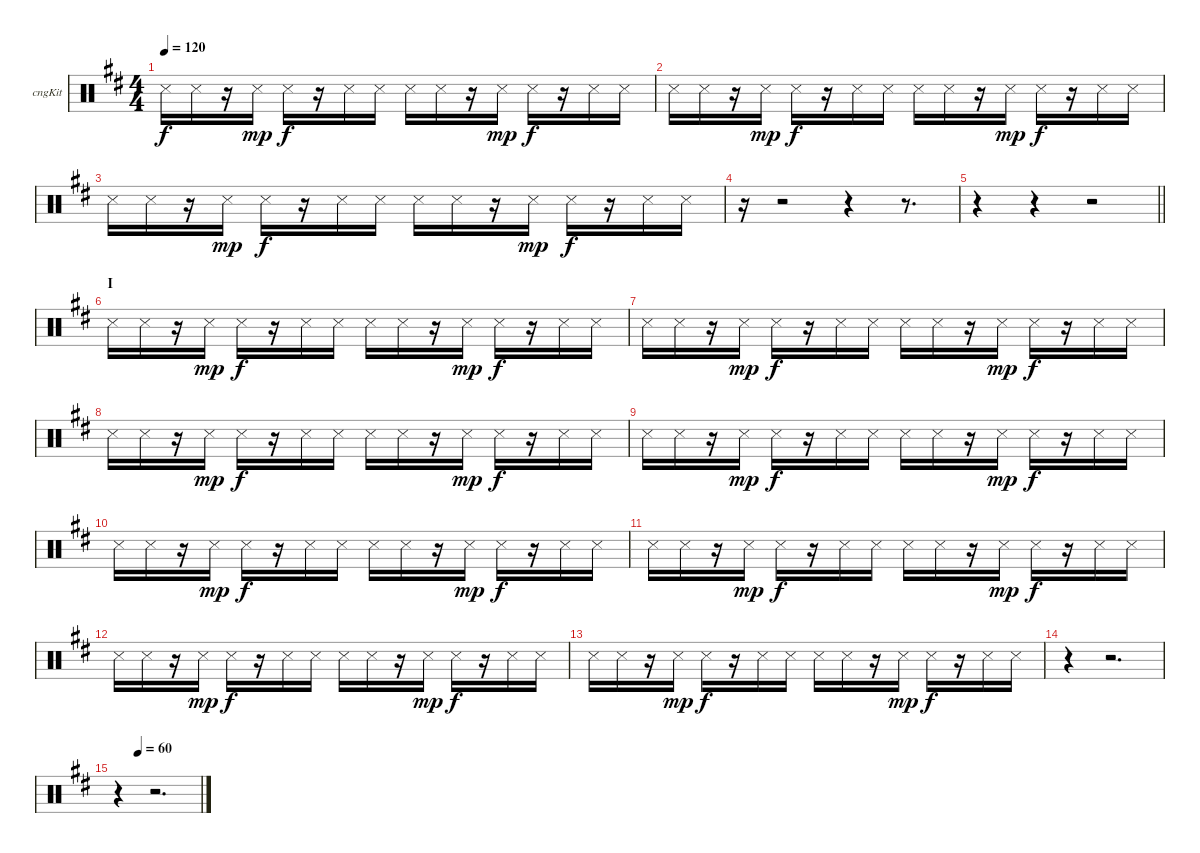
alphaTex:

\bracketExtendMode groupsimilarinstruments
\firstSystemTrackNameOrientation horizontal
\otherSystemsTrackNameOrientation horizontal
\track ("Congas" "cngKit") {instrument percussion}
\staff {score}
\articulation defaults
\ts (4 4)
\tempo 120
\clef neutral
\ks d "Snare (side stick) 3".16{dy f} "Snare (side stick) 3".16
r.16 "Snare (side stick) 3".16{dy mp} "Snare (side stick) 3".16{dy f} r.16 "Snare (side stick) 3".16 "Snare (side stick) 3".16 "Snare (side stick) 3".16 "Snare (side stick) 3".16 r.16 "Snare (side stick) 3".16{dy mp} "Snare (side stick) 3".16{dy f} r.16 "Snare (side stick) 3".16 "Snare (side stick) 3".16 |
"Snare (side stick) 3".16 "Snare (side stick) 3".16 r.16 "Snare (side stick) 3".16{dy mp} "Snare (side stick) 3".16{dy f} r.16 "Snare (side stick) 3".16 "Snare (side stick) 3".16 "Snare (side stick) 3".16 "Snare (side stick) 3".16 r.16 "Snare (side stick) 3".16{dy mp} "Snare (side stick) 3".16{dy f} r.16 "Snare (side stick) 3".16 "Snare (side stick) 3".16 |
"Snare (side stick) 3".16 "Snare (side stick) 3".16 r.16 "Snare (side stick) 3".16{dy mp} "Snare (side stick) 3".16{dy f} r.16 "Snare (side stick) 3".16 "Snare (side stick) 3".16 "Snare (side stick) 3".16 "Snare (side stick) 3".16 r.16 "Snare (side stick) 3".16{dy mp} "Snare (side stick) 3".16{dy f} r.16 "Snare (side stick) 3".16 "Snare (side stick) 3".16 |
r.16 r.2 r.4 r.8{d} |
\barLineRight lightlight
r.4 r.4 r.2 |
\section ("" "I")
"Snare (side stick) 3".16 "Snare (side stick) 3".16 r.16 "Snare (side stick) 3".16{dy mp} "Snare (side stick) 3".16{dy f} r.16 "Snare (side stick) 3".16 "Snare (side stick) 3".16 "Snare (side stick) 3".16 "Snare (side stick) 3".16 r.16 "Snare (side stick) 3".16{dy mp} "Snare (side stick) 3".16{dy f} r.16 "Snare (side stick) 3".16 "Snare (side stick) 3".16 |
"Snare (side stick) 3".16 "Snare (side stick) 3".16 r.16 "Snare (side stick) 3".16{dy mp} "Snare (side stick) 3".16{dy f} r.16 "Snare (side stick) 3".16 "Snare (side stick) 3".16 "Snare (side stick) 3".16 "Snare (side stick) 3".16 r.16 "Snare (side stick) 3".16{dy mp} "Snare (side stick) 3".16{dy f} r.16 "Snare (side stick) 3".16 "Snare (side stick) 3".16 |
"Snare (side stick) 3".16 "Snare (side stick) 3".16 r.16 "Snare (side stick) 3".16{dy mp} "Snare (side stick) 3".16{dy f} r.16 "Snare (side stick) 3".16 "Snare (side stick) 3".16 "Snare (side stick) 3".16 "Snare (side stick) 3".16 r.16 "Snare (side stick) 3".16{dy mp} "Snare (side stick) 3".16{dy f} r.16 "Snare (side stick) 3".16 "Snare (side stick) 3".16 |
"Snare (side stick) 3".16 "Snare (side stick) 3".16 r.16 "Snare (side stick) 3".16{dy mp} "Snare (side stick) 3".16{dy f} r.16 "Snare (side stick) 3".16 "Snare (side stick) 3".16 "Snare (side stick) 3".16 "Snare (side stick) 3".16 r.16 "Snare (side stick) 3".16{dy mp} "Snare (side stick) 3".16{dy f} r.16 "Snare (side stick) 3".16 "Snare (side stick) 3".16 |
"Snare (side stick) 3".16 "Snare (side stick) 3".16 r.16 "Snare (side stick) 3".16{dy mp} "Snare (side stick) 3".16{dy f} r.16 "Snare (side stick) 3".16 "Snare (side stick) 3".16 "Snare (side stick) 3".16 "Snare (side stick) 3".16 r.16 "Snare (side stick) 3".16{dy mp} "Snare (side stick) 3".16{dy f} r.16 "Snare (side stick) 3".16 "Snare (side stick) 3".16 |
"Snare (side stick) 3".16 "Snare (side stick) 3".16 r.16 "Snare (side stick) 3".16{dy mp} "Snare (side stick) 3".16{dy f} r.16 "Snare (side stick) 3".16 "Snare (side stick) 3".16 "Snare (side stick) 3".16 "Snare (side stick) 3".16 r.16 "Snare (side stick) 3".16{dy mp} "Snare (side stick) 3".16{dy f} r.16 "Snare (side stick) 3".16 "Snare (side stick) 3".16 |
"Snare (side stick) 3".16 "Snare (side stick) 3".16 r.16 "Snare (side stick) 3".16{dy mp} "Snare (side stick) 3".16{dy f} r.16 "Snare (side stick) 3".16 "Snare (side stick) 3".16 "Snare (side stick) 3".16 "Snare (side stick) 3".16 r.16 "Snare (side stick) 3".16{dy mp} "Snare (side stick) 3".16{dy f} r.16 "Snare (side stick) 3".16 "Snare (side stick) 3".16 |
"Snare (side stick) 3".16 "Snare (side stick) 3".16 r.16 "Snare (side stick) 3".16{dy mp} "Snare (side stick) 3".16{dy f} r.16 "Snare (side stick) 3".16 "Snare (side stick) 3".16 "Snare (side stick) 3".16 "Snare (side stick) 3".16 r.16 "Snare (side stick) 3".16{dy mp} "Snare (side stick) 3".16{dy f} r.16 "Snare (side stick) 3".16 "Snare (side stick) 3".16 |
r.4 r.2{d} |
\tempo (60 0.25)
r.4 r.2{d}
